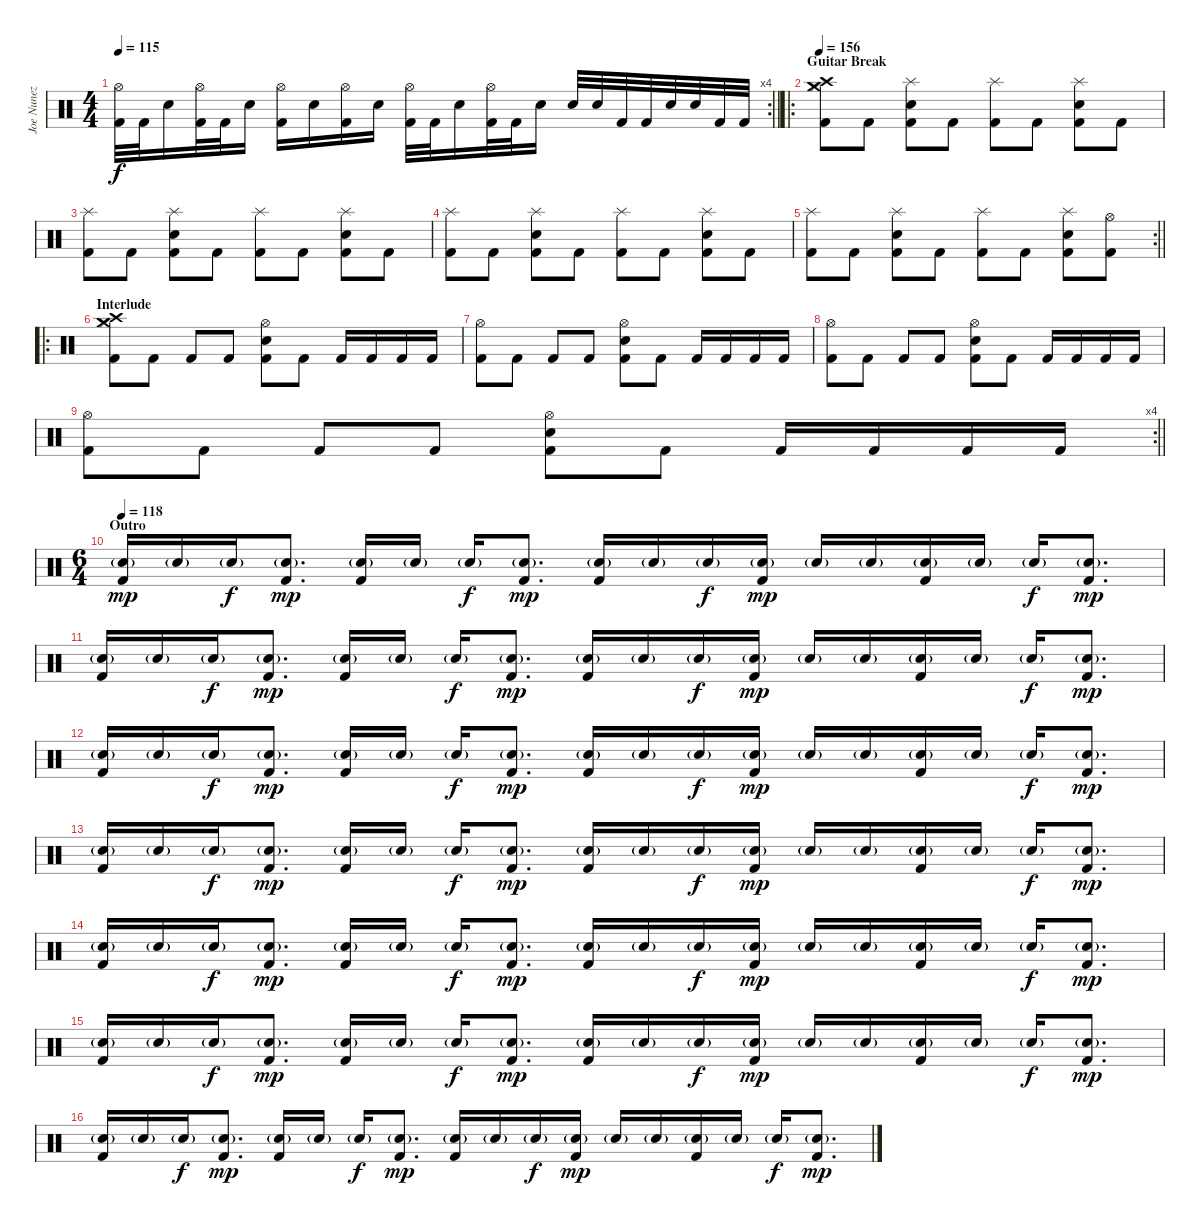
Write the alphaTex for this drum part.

\track ("Joe Nunez" "Joe Nunez") {instrument percussion}
\staff {score}
\articulation defaults
\rc 4
\ts (4 4)
\tempo 115
\clef neutral
\barLineRight lightlight
\ks c
("Hi-Hat (open)" "Kick (hit) 2").32{dy f} "Kick (hit) 2".32 "Electric Snare (hit)".16 ("Hi-Hat (open)" "Kick (hit) 2").32 "Kick (hit) 2".32 "Electric Snare (hit)".16 ("Hi-Hat (open)" "Kick (hit) 2").16 "Electric Snare (hit)".16 ("Hi-Hat (open)" "Kick (hit) 2").16 "Electric Snare (hit)".16 ("Hi-Hat (open)" "Kick (hit) 2").32 "Kick (hit) 2".32 "Electric Snare (hit)".16 ("Hi-Hat (open)" "Kick (hit) 2").32 "Kick (hit) 2".32 "Electric Snare (hit)".16 "Electric Snare (hit)".32 "Electric Snare (hit)".32 "Kick (hit) 2".32 "Kick (hit) 2".32 "Electric Snare (hit)".32 "Electric Snare (hit)".32 "Kick (hit) 2".32 "Kick (hit) 2".32 |
\ro
\section ("" "Guitar Break")
\tempo 156
("Crash high (hit)" "Crash medium (hit)" "Hi-Hat (closed)" "Kick (hit) 2").8 "Kick (hit) 2".8 ("Splash (hit)" "Electric Snare (hit)" "Kick (hit) 2").8 "Kick (hit) 2".8 ("Splash (hit)" "Kick (hit) 2").8 "Kick (hit) 2".8 ("Splash (hit)" "Electric Snare (hit)" "Kick (hit) 2").8 "Kick (hit) 2".8 |
("Splash (hit)" "Kick (hit) 2").8 "Kick (hit) 2".8 ("Splash (hit)" "Electric Snare (hit)" "Kick (hit) 2").8 "Kick (hit) 2".8 ("Splash (hit)" "Kick (hit) 2").8 "Kick (hit) 2".8 ("Splash (hit)" "Electric Snare (hit)" "Kick (hit) 2").8 "Kick (hit) 2".8 |
("Splash (hit)" "Kick (hit) 2").8 "Kick (hit) 2".8 ("Splash (hit)" "Electric Snare (hit)" "Kick (hit) 2").8 "Kick (hit) 2".8 ("Splash (hit)" "Kick (hit) 2").8 "Kick (hit) 2".8 ("Splash (hit)" "Electric Snare (hit)" "Kick (hit) 2").8 "Kick (hit) 2".8 |
\rc 2
\barLineRight lightlight
("Splash (hit)" "Kick (hit) 2").8 "Kick (hit) 2".8 ("Splash (hit)" "Electric Snare (hit)" "Kick (hit) 2").8 "Kick (hit) 2".8 ("Splash (hit)" "Kick (hit) 2").8 "Kick (hit) 2".8 ("Splash (hit)" "Electric Snare (hit)" "Kick (hit) 2").8 ("Hi-Hat (open)" "Kick (hit) 2").8 |
\ro
\section ("" "Interlude")
("Crash high (hit)" "Crash medium (hit)" "Hi-Hat (closed)" "Kick (hit) 2").8 "Kick (hit) 2".8 "Kick (hit) 2".8 "Kick (hit) 2".8 ("Hi-Hat (open)" "Electric Snare (hit)" "Kick (hit) 2").8 "Kick (hit) 2".8 "Kick (hit) 2".16 "Kick (hit) 2".16 "Kick (hit) 2".16 "Kick (hit) 2".16 |
("Hi-Hat (open)" "Kick (hit) 2").8 "Kick (hit) 2".8 "Kick (hit) 2".8 "Kick (hit) 2".8 ("Hi-Hat (open)" "Electric Snare (hit)" "Kick (hit) 2").8 "Kick (hit) 2".8 "Kick (hit) 2".16 "Kick (hit) 2".16 "Kick (hit) 2".16 "Kick (hit) 2".16 |
("Hi-Hat (open)" "Kick (hit) 2").8 "Kick (hit) 2".8 "Kick (hit) 2".8 "Kick (hit) 2".8 ("Hi-Hat (open)" "Electric Snare (hit)" "Kick (hit) 2").8 "Kick (hit) 2".8 "Kick (hit) 2".16 "Kick (hit) 2".16 "Kick (hit) 2".16 "Kick (hit) 2".16 |
\rc 4
\barLineRight lightlight
("Hi-Hat (open)" "Kick (hit) 2").8 "Kick (hit) 2".8 "Kick (hit) 2".8 "Kick (hit) 2".8 ("Hi-Hat (open)" "Electric Snare (hit)" "Kick (hit) 2").8 "Kick (hit) 2".8 "Kick (hit) 2".16 "Kick (hit) 2".16 "Kick (hit) 2".16 "Kick (hit) 2".16 |
\ts (6 4)
\section ("" "Outro")
\tempo 118
("Electric Snare (hit)"{g} "Kick (hit) 2").16{dy mp volume 16} "Electric Snare (hit)"{g}.16 "Electric Snare (hit)"{g}.16{dy f} ("Electric Snare (hit)"{g} "Kick (hit) 2").8{d dy mp} ("Electric Snare (hit)"{g} "Kick (hit) 2").16 "Electric Snare (hit)"{g}.16 "Electric Snare (hit)"{g}.16{dy f} ("Electric Snare (hit)"{g} "Kick (hit) 2").8{d dy mp} ("Electric Snare (hit)"{g} "Kick (hit) 2").16 "Electric Snare (hit)"{g}.16 "Electric Snare (hit)"{g}.16{dy f} ("Electric Snare (hit)"{g} "Kick (hit) 2").16{dy mp} "Electric Snare (hit)"{g}.16 "Electric Snare (hit)"{g}.16 ("Electric Snare (hit)"{g} "Kick (hit) 2").16 "Electric Snare (hit)"{g}.16 "Electric Snare (hit)"{g}.16{dy f} ("Electric Snare (hit)"{g} "Kick (hit) 2").8{d dy mp} |
("Electric Snare (hit)"{g} "Kick (hit) 2").16 "Electric Snare (hit)"{g}.16 "Electric Snare (hit)"{g}.16{dy f} ("Electric Snare (hit)"{g} "Kick (hit) 2").8{d dy mp} ("Electric Snare (hit)"{g} "Kick (hit) 2").16 "Electric Snare (hit)"{g}.16 "Electric Snare (hit)"{g}.16{dy f} ("Electric Snare (hit)"{g} "Kick (hit) 2").8{d dy mp} ("Electric Snare (hit)"{g} "Kick (hit) 2").16 "Electric Snare (hit)"{g}.16 "Electric Snare (hit)"{g}.16{dy f} ("Electric Snare (hit)"{g} "Kick (hit) 2").16{dy mp} "Electric Snare (hit)"{g}.16 "Electric Snare (hit)"{g}.16 ("Electric Snare (hit)"{g} "Kick (hit) 2").16 "Electric Snare (hit)"{g}.16 "Electric Snare (hit)"{g}.16{dy f} ("Electric Snare (hit)"{g} "Kick (hit) 2").8{d dy mp} |
("Electric Snare (hit)"{g} "Kick (hit) 2").16 "Electric Snare (hit)"{g}.16 "Electric Snare (hit)"{g}.16{dy f} ("Electric Snare (hit)"{g} "Kick (hit) 2").8{d dy mp} ("Electric Snare (hit)"{g} "Kick (hit) 2").16 "Electric Snare (hit)"{g}.16 "Electric Snare (hit)"{g}.16{dy f} ("Electric Snare (hit)"{g} "Kick (hit) 2").8{d dy mp} ("Electric Snare (hit)"{g} "Kick (hit) 2").16 "Electric Snare (hit)"{g}.16 "Electric Snare (hit)"{g}.16{dy f} ("Electric Snare (hit)"{g} "Kick (hit) 2").16{dy mp} "Electric Snare (hit)"{g}.16 "Electric Snare (hit)"{g}.16 ("Electric Snare (hit)"{g} "Kick (hit) 2").16 "Electric Snare (hit)"{g}.16 "Electric Snare (hit)"{g}.16{dy f} ("Electric Snare (hit)"{g} "Kick (hit) 2").8{d dy mp} |
("Electric Snare (hit)"{g} "Kick (hit) 2").16 "Electric Snare (hit)"{g}.16 "Electric Snare (hit)"{g}.16{dy f} ("Electric Snare (hit)"{g} "Kick (hit) 2").8{d dy mp} ("Electric Snare (hit)"{g} "Kick (hit) 2").16 "Electric Snare (hit)"{g}.16 "Electric Snare (hit)"{g}.16{dy f} ("Electric Snare (hit)"{g} "Kick (hit) 2").8{d dy mp} ("Electric Snare (hit)"{g} "Kick (hit) 2").16 "Electric Snare (hit)"{g}.16 "Electric Snare (hit)"{g}.16{dy f} ("Electric Snare (hit)"{g} "Kick (hit) 2").16{dy mp} "Electric Snare (hit)"{g}.16 "Electric Snare (hit)"{g}.16 ("Electric Snare (hit)"{g} "Kick (hit) 2").16 "Electric Snare (hit)"{g}.16 "Electric Snare (hit)"{g}.16{dy f} ("Electric Snare (hit)"{g} "Kick (hit) 2").8{d dy mp} |
("Electric Snare (hit)"{g} "Kick (hit) 2").16 "Electric Snare (hit)"{g}.16 "Electric Snare (hit)"{g}.16{dy f} ("Electric Snare (hit)"{g} "Kick (hit) 2").8{d dy mp} ("Electric Snare (hit)"{g} "Kick (hit) 2").16 "Electric Snare (hit)"{g}.16 "Electric Snare (hit)"{g}.16{dy f} ("Electric Snare (hit)"{g} "Kick (hit) 2").8{d dy mp} ("Electric Snare (hit)"{g} "Kick (hit) 2").16 "Electric Snare (hit)"{g}.16 "Electric Snare (hit)"{g}.16{dy f} ("Electric Snare (hit)"{g} "Kick (hit) 2").16{dy mp} "Electric Snare (hit)"{g}.16 "Electric Snare (hit)"{g}.16 ("Electric Snare (hit)"{g} "Kick (hit) 2").16 "Electric Snare (hit)"{g}.16 "Electric Snare (hit)"{g}.16{dy f} ("Electric Snare (hit)"{g} "Kick (hit) 2").8{d dy mp} |
("Electric Snare (hit)"{g} "Kick (hit) 2").16 "Electric Snare (hit)"{g}.16 "Electric Snare (hit)"{g}.16{dy f} ("Electric Snare (hit)"{g} "Kick (hit) 2").8{d dy mp} ("Electric Snare (hit)"{g} "Kick (hit) 2").16 "Electric Snare (hit)"{g}.16 "Electric Snare (hit)"{g}.16{dy f} ("Electric Snare (hit)"{g} "Kick (hit) 2").8{d dy mp} ("Electric Snare (hit)"{g} "Kick (hit) 2").16 "Electric Snare (hit)"{g}.16 "Electric Snare (hit)"{g}.16{dy f} ("Electric Snare (hit)"{g} "Kick (hit) 2").16{dy mp} "Electric Snare (hit)"{g}.16 "Electric Snare (hit)"{g}.16 ("Electric Snare (hit)"{g} "Kick (hit) 2").16 "Electric Snare (hit)"{g}.16 "Electric Snare (hit)"{g}.16{dy f} ("Electric Snare (hit)"{g} "Kick (hit) 2").8{d dy mp} |
("Electric Snare (hit)"{g} "Kick (hit) 2").16 "Electric Snare (hit)"{g}.16 "Electric Snare (hit)"{g}.16{dy f} ("Electric Snare (hit)"{g} "Kick (hit) 2").8{d dy mp} ("Electric Snare (hit)"{g} "Kick (hit) 2").16 "Electric Snare (hit)"{g}.16 "Electric Snare (hit)"{g}.16{dy f} ("Electric Snare (hit)"{g} "Kick (hit) 2").8{d dy mp} ("Electric Snare (hit)"{g} "Kick (hit) 2").16 "Electric Snare (hit)"{g}.16 "Electric Snare (hit)"{g}.16{dy f} ("Electric Snare (hit)"{g} "Kick (hit) 2").16{dy mp} "Electric Snare (hit)"{g}.16 "Electric Snare (hit)"{g}.16 ("Electric Snare (hit)"{g} "Kick (hit) 2").16 "Electric Snare (hit)"{g}.16 "Electric Snare (hit)"{g}.16{dy f} ("Electric Snare (hit)"{g} "Kick (hit) 2").8{d dy mp}
